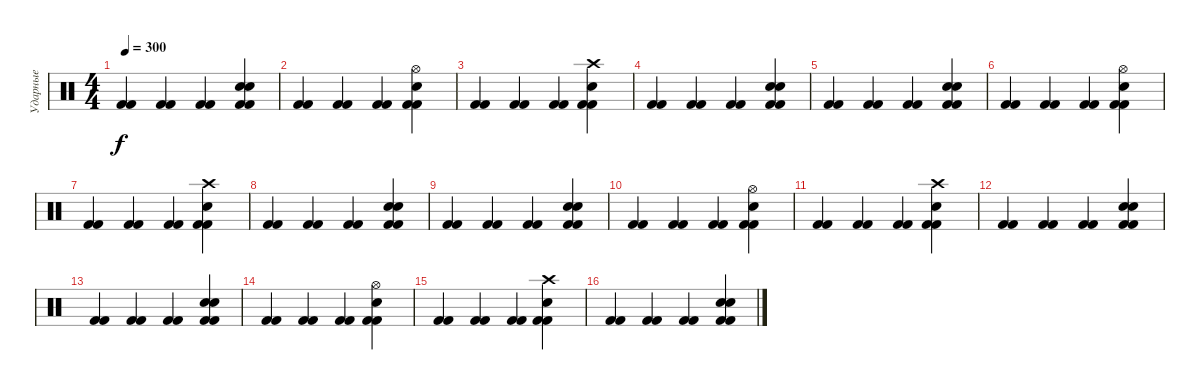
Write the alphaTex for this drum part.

\track ("Ударные" "Ударные") {instrument percussion}
\staff {score}
\articulation defaults
\ts (4 4)
\tempo 300
\clef neutral
\ks c
("Kick (hit) 2" "Kick (hit) 2").4{dy f} ("Kick (hit) 2" "Kick (hit) 2").4 ("Kick (hit) 2" "Kick (hit) 2").4 ("Kick (hit) 2" "Kick (hit) 2" "Electric Snare (hit)" "Electric Snare (hit)").4 |
("Kick (hit) 2" "Kick (hit) 2").4 ("Kick (hit) 2" "Kick (hit) 2").4 ("Kick (hit) 2" "Kick (hit) 2").4 ("Kick (hit) 2" "Kick (hit) 2" "Hi-Hat (open)" "Electric Snare (hit)").4 |
("Kick (hit) 2" "Kick (hit) 2").4 ("Kick (hit) 2" "Kick (hit) 2").4 ("Kick (hit) 2" "Kick (hit) 2").4 ("Kick (hit) 2" "Kick (hit) 2" "Crash high (hit)" "Electric Snare (hit)").4 |
("Kick (hit) 2" "Kick (hit) 2").4 ("Kick (hit) 2" "Kick (hit) 2").4 ("Kick (hit) 2" "Kick (hit) 2").4 ("Kick (hit) 2" "Kick (hit) 2" "Electric Snare (hit)" "Electric Snare (hit)").4 |
("Kick (hit) 2" "Kick (hit) 2").4 ("Kick (hit) 2" "Kick (hit) 2").4 ("Kick (hit) 2" "Kick (hit) 2").4 ("Kick (hit) 2" "Kick (hit) 2" "Electric Snare (hit)" "Electric Snare (hit)").4 |
("Kick (hit) 2" "Kick (hit) 2").4 ("Kick (hit) 2" "Kick (hit) 2").4 ("Kick (hit) 2" "Kick (hit) 2").4 ("Kick (hit) 2" "Kick (hit) 2" "Hi-Hat (open)" "Electric Snare (hit)").4 |
("Kick (hit) 2" "Kick (hit) 2").4 ("Kick (hit) 2" "Kick (hit) 2").4 ("Kick (hit) 2" "Kick (hit) 2").4 ("Kick (hit) 2" "Kick (hit) 2" "Crash high (hit)" "Electric Snare (hit)").4 |
("Kick (hit) 2" "Kick (hit) 2").4 ("Kick (hit) 2" "Kick (hit) 2").4 ("Kick (hit) 2" "Kick (hit) 2").4 ("Kick (hit) 2" "Kick (hit) 2" "Electric Snare (hit)" "Electric Snare (hit)").4 |
("Kick (hit) 2" "Kick (hit) 2").4 ("Kick (hit) 2" "Kick (hit) 2").4 ("Kick (hit) 2" "Kick (hit) 2").4 ("Kick (hit) 2" "Kick (hit) 2" "Electric Snare (hit)" "Electric Snare (hit)").4 |
("Kick (hit) 2" "Kick (hit) 2").4 ("Kick (hit) 2" "Kick (hit) 2").4 ("Kick (hit) 2" "Kick (hit) 2").4 ("Kick (hit) 2" "Kick (hit) 2" "Hi-Hat (open)" "Electric Snare (hit)").4 |
("Kick (hit) 2" "Kick (hit) 2").4 ("Kick (hit) 2" "Kick (hit) 2").4 ("Kick (hit) 2" "Kick (hit) 2").4 ("Kick (hit) 2" "Kick (hit) 2" "Crash high (hit)" "Electric Snare (hit)").4 |
("Kick (hit) 2" "Kick (hit) 2").4 ("Kick (hit) 2" "Kick (hit) 2").4 ("Kick (hit) 2" "Kick (hit) 2").4 ("Kick (hit) 2" "Kick (hit) 2" "Electric Snare (hit)" "Electric Snare (hit)").4 |
("Kick (hit) 2" "Kick (hit) 2").4 ("Kick (hit) 2" "Kick (hit) 2").4 ("Kick (hit) 2" "Kick (hit) 2").4 ("Kick (hit) 2" "Kick (hit) 2" "Electric Snare (hit)" "Electric Snare (hit)").4 |
("Kick (hit) 2" "Kick (hit) 2").4 ("Kick (hit) 2" "Kick (hit) 2").4 ("Kick (hit) 2" "Kick (hit) 2").4 ("Kick (hit) 2" "Kick (hit) 2" "Hi-Hat (open)" "Electric Snare (hit)").4 |
("Kick (hit) 2" "Kick (hit) 2").4 ("Kick (hit) 2" "Kick (hit) 2").4 ("Kick (hit) 2" "Kick (hit) 2").4 ("Kick (hit) 2" "Kick (hit) 2" "Crash high (hit)" "Electric Snare (hit)").4 |
("Kick (hit) 2" "Kick (hit) 2").4 ("Kick (hit) 2" "Kick (hit) 2").4 ("Kick (hit) 2" "Kick (hit) 2").4 ("Kick (hit) 2" "Kick (hit) 2" "Electric Snare (hit)" "Electric Snare (hit)").4
